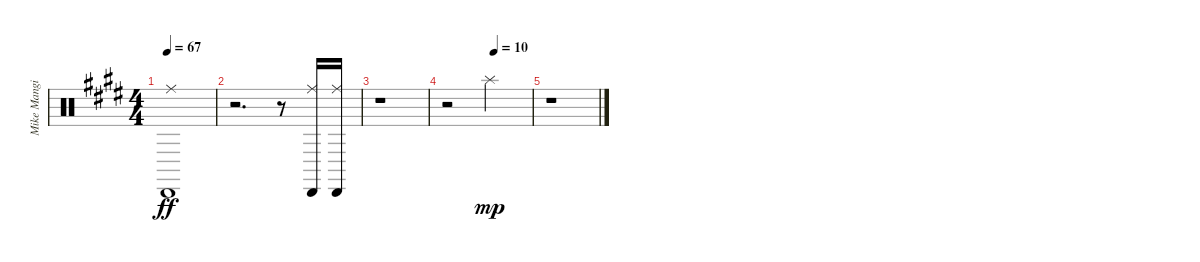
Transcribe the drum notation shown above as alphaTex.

\track ("Mike Mangini - Percussion" "Mike Mangi") {instrument percussion}
\staff {score}
\articulation defaults
\ts (4 4)
\tempo 67
\clef neutral
\ks e
("Ride (middle)" "Cabasa (hit)").1{dy ff} |
r.2{d} r.8 ("Ride (middle)" "Cabasa (hit)").16 ("Ride (middle)" "Cabasa (hit)").16 |
r.1 |
\tempo (10 0.5625)
r.2 "Splash (hit)".2{dy mp} |
r.1
